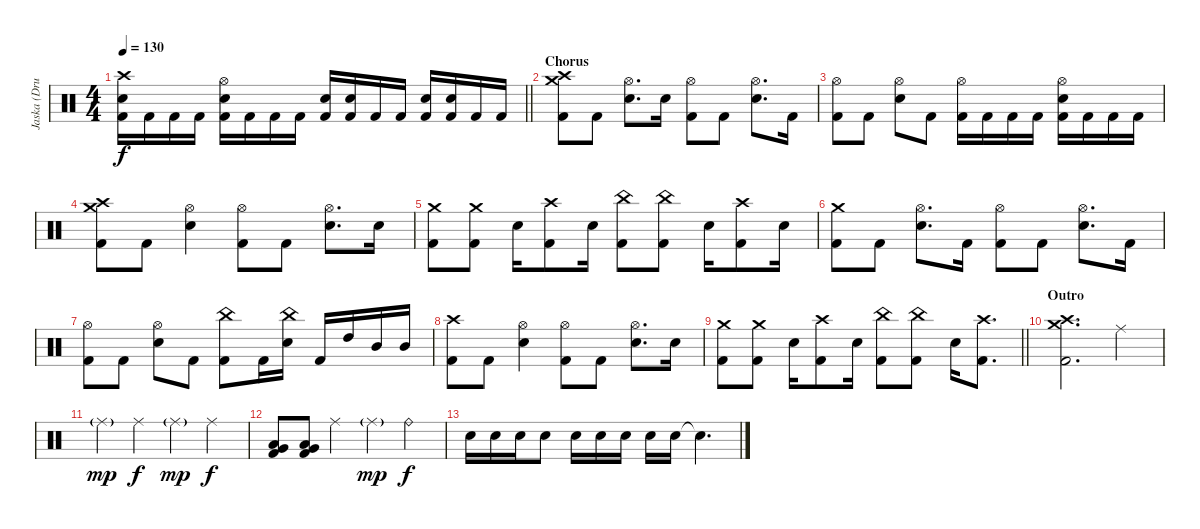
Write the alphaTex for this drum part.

\track ("Jaska (Drums)" "Jaska (Dru") {instrument percussion}
\staff {score}
\articulation defaults
\ts (4 4)
\tempo 130
\clef neutral
\barLineRight lightlight
\ks c
("Crash high (hit)" "Electric Snare (hit)" "Kick (hit) 2").16{dy f} "Kick (hit) 2".16 "Kick (hit) 2".16 "Kick (hit) 2".16 ("Hi-Hat (open)" "Electric Snare (hit)" "Kick (hit) 2").16 "Kick (hit) 2".16 "Kick (hit) 2".16 "Kick (hit) 2".16 ("Electric Snare (hit)" "Kick (hit) 2").16 ("Electric Snare (hit)" "Kick (hit) 2").16 "Kick (hit) 2".16 "Kick (hit) 2".16 ("Electric Snare (hit)" "Kick (hit) 2").16 ("Electric Snare (hit)" "Kick (hit) 2").16 "Kick (hit) 2".16 "Kick (hit) 2".16 |
\section ("" "Chorus")
("Crash medium (hit)" "Crash high (hit)" "Kick (hit) 2").8 "Kick (hit) 2".8 ("Hi-Hat (open)" "Electric Snare (hit)").8{d} "Electric Snare (hit)".16 ("Hi-Hat (open)" "Kick (hit) 2").8 "Kick (hit) 2".8 ("Hi-Hat (open)" "Electric Snare (hit)").8{d} "Kick (hit) 2".16 |
("Hi-Hat (open)" "Kick (hit) 2").8 "Kick (hit) 2".8 ("Hi-Hat (open)" "Electric Snare (hit)").8 "Kick (hit) 2".8 ("Hi-Hat (open)" "Kick (hit) 2").16 "Kick (hit) 2".16 "Kick (hit) 2".16 "Kick (hit) 2".16 ("Hi-Hat (open)" "Electric Snare (hit)" "Kick (hit) 2").16 "Kick (hit) 2".16 "Kick (hit) 2".16 "Kick (hit) 2".16 |
("Crash medium (hit)" "Crash high (hit)" "Kick (hit) 2").8 "Kick (hit) 2".8 ("Hi-Hat (open)" "Electric Snare (hit)").4 ("Hi-Hat (open)" "Kick (hit) 2").8 "Kick (hit) 2".8 ("Hi-Hat (open)" "Electric Snare (hit)").8{d} "Electric Snare (hit)".16 |
("Crash medium (hit)" "Kick (hit) 2").8 ("Crash medium (hit)" "Kick (hit) 2").8 "Electric Snare (hit)".16 ("Crash high (hit)" "Kick (hit) 2").8 "Electric Snare (hit)".16 ("China (hit)" "Kick (hit) 2").8 ("China (hit)" "Kick (hit) 2").8 "Electric Snare (hit)".16 ("Crash high (hit)" "Kick (hit) 2").8 "Electric Snare (hit)".16 |
("Crash medium (hit)" "Kick (hit) 2").8 "Kick (hit) 2".8 ("Hi-Hat (open)" "Electric Snare (hit)").8{d} "Kick (hit) 2".16 ("Hi-Hat (open)" "Kick (hit) 2").8 "Kick (hit) 2".8 ("Hi-Hat (open)" "Electric Snare (hit)").8{d} "Kick (hit) 2".16 |
("Hi-Hat (open)" "Kick (hit) 2").8 "Kick (hit) 2".8 ("Hi-Hat (open)" "Electric Snare (hit)").8 "Kick (hit) 2".8 ("China (hit)" "Kick (hit) 2").8 "Kick (hit) 2".16 ("China (hit)" "Electric Snare (hit)").16 "Kick (hit) 2".16 "High Tom (hit)".16 "Mid Tom (hit)".16 "Mid Tom (hit)".16 |
("Crash high (hit)" "Kick (hit) 2").8 "Kick (hit) 2".8 ("Hi-Hat (open)" "Electric Snare (hit)").4 ("Hi-Hat (open)" "Kick (hit) 2").8 "Kick (hit) 2".8 ("Hi-Hat (open)" "Electric Snare (hit)").8{d} "Electric Snare (hit)".16 |
\barLineRight lightlight
("Crash medium (hit)" "Kick (hit) 2").8 ("Crash medium (hit)" "Kick (hit) 2").8 "Electric Snare (hit)".16 ("Crash high (hit)" "Kick (hit) 2").8 "Electric Snare (hit)".16 ("China (hit)" "Kick (hit) 2").8 ("China (hit)" "Kick (hit) 2").8 "Electric Snare (hit)".16 ("Crash high (hit)" "Kick (hit) 2").8{d} |
\section ("" "Outro")
("Crash medium (hit)" "Crash high (hit)" "Kick (hit) 2").2{d} "Ride (middle)".4 |
"Ride (middle)"{g}.4{dy mp} "Ride (middle)".4{dy f} "Ride (middle)"{g}.4{dy mp} "Ride (middle)".4{dy f} |
("Very Low Tom (hit)" "Low Floor Tom (hit)" "Kick (hit) 2").8 ("Very Low Tom (hit)" "Low Floor Tom (hit)" "Kick (hit) 2").8 "Ride (middle)".4 "Ride (middle)"{g}.4{dy mp} "Ride (bell)".4{dy f} |
"Electric Snare (hit)".16 "Electric Snare (hit)".16 "Electric Snare (hit)".16 "Electric Snare (hit)".8 "Electric Snare (hit)".16 "Electric Snare (hit)".16 "Electric Snare (hit)".16 "Electric Snare (hit)".16 "Electric Snare (hit)".16 "Electric Snare (hit)"{t}.4{d}
